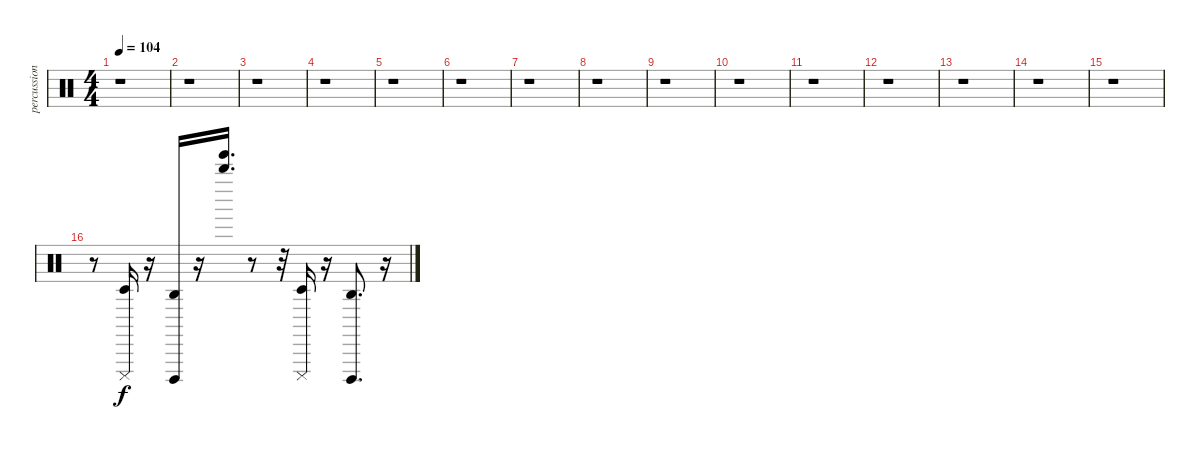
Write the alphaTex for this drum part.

\track ("percussion" "percussion") {instrument percussion}
\staff {score}
\articulation defaults
\ts (4 4)
\tempo 104
\clef neutral
\ks c
r.1{dy f} |
r.1 |
r.1 |
r.1 |
r.1 |
r.1 |
r.1 |
r.1 |
r.1 |
r.1 |
r.1 |
r.1 |
r.1 |
r.1 |
r.1 |
r.8 ("Timbale low (hit)" "Cuica (mute)").16 r.16 ("Agogo high (hit)" "Cuica (open)").16 r.16 ("Whistle high (hit)" "Tinkle Bell (hit)").16{d} r.8 r.32 ("Timbale low (hit)" "Cuica (mute)").16 r.16 ("Agogo high (hit)" "Cuica (open)").8{d} r.16
